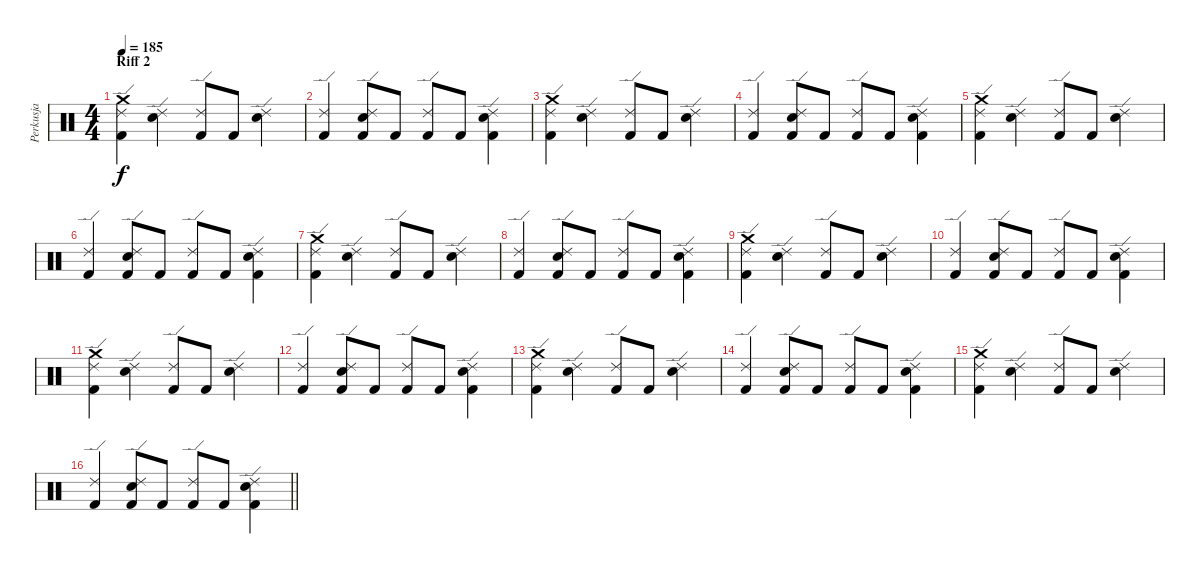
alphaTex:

\track ("Perkusja" "Perkusja") {instrument percussion}
\staff {score}
\articulation defaults
\ts (4 4)
\section ("" "Riff 2")
\tempo 185
\clef neutral
\ks c
("Crash medium (hit)" "Ride (edge) 2" "Kick (hit) 2").4{dy f} ("Electric Snare (hit)" "Ride (edge) 2").4 ("Ride (edge) 2" "Kick (hit) 2").8 "Kick (hit) 2".8 ("Electric Snare (hit)" "Ride (edge) 2").4 |
("Ride (edge) 2" "Kick (hit) 2").4 ("Electric Snare (hit)" "Ride (edge) 2" "Kick (hit) 2").8 "Kick (hit) 2".8 ("Ride (edge) 2" "Kick (hit) 2").8 "Kick (hit) 2".8 ("Electric Snare (hit)" "Ride (edge) 2" "Kick (hit) 2").4 |
("Crash medium (hit)" "Ride (edge) 2" "Kick (hit) 2").4 ("Electric Snare (hit)" "Ride (edge) 2").4 ("Ride (edge) 2" "Kick (hit) 2").8 "Kick (hit) 2".8 ("Electric Snare (hit)" "Ride (edge) 2").4 |
("Ride (edge) 2" "Kick (hit) 2").4 ("Electric Snare (hit)" "Ride (edge) 2" "Kick (hit) 2").8 "Kick (hit) 2".8 ("Ride (edge) 2" "Kick (hit) 2").8 "Kick (hit) 2".8 ("Electric Snare (hit)" "Ride (edge) 2" "Kick (hit) 2").4 |
("Crash medium (hit)" "Ride (edge) 2" "Kick (hit) 2").4 ("Electric Snare (hit)" "Ride (edge) 2").4 ("Ride (edge) 2" "Kick (hit) 2").8 "Kick (hit) 2".8 ("Electric Snare (hit)" "Ride (edge) 2").4 |
("Ride (edge) 2" "Kick (hit) 2").4 ("Electric Snare (hit)" "Ride (edge) 2" "Kick (hit) 2").8 "Kick (hit) 2".8 ("Ride (edge) 2" "Kick (hit) 2").8 "Kick (hit) 2".8 ("Electric Snare (hit)" "Ride (edge) 2" "Kick (hit) 2").4 |
("Crash medium (hit)" "Ride (edge) 2" "Kick (hit) 2").4 ("Electric Snare (hit)" "Ride (edge) 2").4 ("Ride (edge) 2" "Kick (hit) 2").8 "Kick (hit) 2".8 ("Electric Snare (hit)" "Ride (edge) 2").4 |
("Ride (edge) 2" "Kick (hit) 2").4 ("Electric Snare (hit)" "Ride (edge) 2" "Kick (hit) 2").8 "Kick (hit) 2".8 ("Ride (edge) 2" "Kick (hit) 2").8 "Kick (hit) 2".8 ("Electric Snare (hit)" "Ride (edge) 2" "Kick (hit) 2").4 |
("Crash medium (hit)" "Ride (edge) 2" "Kick (hit) 2").4 ("Electric Snare (hit)" "Ride (edge) 2").4 ("Ride (edge) 2" "Kick (hit) 2").8 "Kick (hit) 2".8 ("Electric Snare (hit)" "Ride (edge) 2").4 |
("Ride (edge) 2" "Kick (hit) 2").4 ("Electric Snare (hit)" "Ride (edge) 2" "Kick (hit) 2").8 "Kick (hit) 2".8 ("Ride (edge) 2" "Kick (hit) 2").8 "Kick (hit) 2".8 ("Electric Snare (hit)" "Ride (edge) 2" "Kick (hit) 2").4 |
("Crash medium (hit)" "Ride (edge) 2" "Kick (hit) 2").4 ("Electric Snare (hit)" "Ride (edge) 2").4 ("Ride (edge) 2" "Kick (hit) 2").8 "Kick (hit) 2".8 ("Electric Snare (hit)" "Ride (edge) 2").4 |
("Ride (edge) 2" "Kick (hit) 2").4 ("Electric Snare (hit)" "Ride (edge) 2" "Kick (hit) 2").8 "Kick (hit) 2".8 ("Ride (edge) 2" "Kick (hit) 2").8 "Kick (hit) 2".8 ("Electric Snare (hit)" "Ride (edge) 2" "Kick (hit) 2").4 |
("Crash medium (hit)" "Ride (edge) 2" "Kick (hit) 2").4 ("Electric Snare (hit)" "Ride (edge) 2").4 ("Ride (edge) 2" "Kick (hit) 2").8 "Kick (hit) 2".8 ("Electric Snare (hit)" "Ride (edge) 2").4 |
("Ride (edge) 2" "Kick (hit) 2").4 ("Electric Snare (hit)" "Ride (edge) 2" "Kick (hit) 2").8 "Kick (hit) 2".8 ("Ride (edge) 2" "Kick (hit) 2").8 "Kick (hit) 2".8 ("Electric Snare (hit)" "Ride (edge) 2" "Kick (hit) 2").4 |
("Crash medium (hit)" "Ride (edge) 2" "Kick (hit) 2").4 ("Electric Snare (hit)" "Ride (edge) 2").4 ("Ride (edge) 2" "Kick (hit) 2").8 "Kick (hit) 2".8 ("Electric Snare (hit)" "Ride (edge) 2").4 |
\barLineRight lightlight
("Ride (edge) 2" "Kick (hit) 2").4 ("Electric Snare (hit)" "Ride (edge) 2" "Kick (hit) 2").8 "Kick (hit) 2".8 ("Ride (edge) 2" "Kick (hit) 2").8 "Kick (hit) 2".8 ("Electric Snare (hit)" "Ride (edge) 2" "Kick (hit) 2").4
